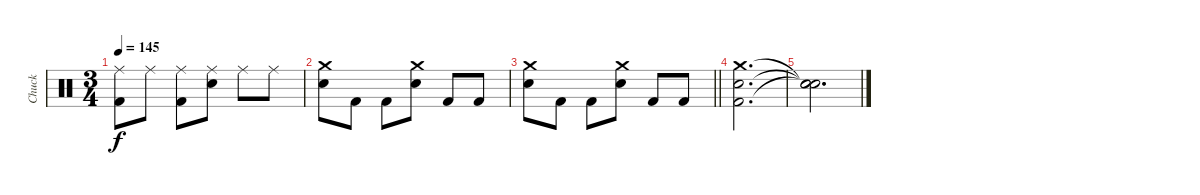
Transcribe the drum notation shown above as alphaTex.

\track ("Chuck" "Chuck") {instrument percussion}
\staff {score}
\articulation defaults
\ts (3 4)
\tempo 145
\clef neutral
\ks c
("Ride (middle)" "Kick (hit) 2").8{dy f} "Ride (middle)".8 ("Ride (middle)" "Kick (hit) 2").8 ("Ride (middle)" "Electric Snare (hit)").8 "Ride (middle)".8 "Ride (middle)".8 |
("Crash medium (hit)" "Electric Snare (hit)").8 "Kick (hit) 2".8 "Kick (hit) 2".8 ("Crash medium (hit)" "Electric Snare (hit)").8 "Kick (hit) 2".8 "Kick (hit) 2".8 |
\barLineRight lightlight
("Crash medium (hit)" "Electric Snare (hit)").8 "Kick (hit) 2".8 "Kick (hit) 2".8 ("Crash medium (hit)" "Electric Snare (hit)").8 "Kick (hit) 2".8 "Kick (hit) 2".8 |
("Crash medium (hit)" "Electric Snare (hit)" "Kick (hit) 2").2{d} |
("Snare (hit)"{t} "Snare (hit)"{t} "Snare (hit)"{t}).2{d}
